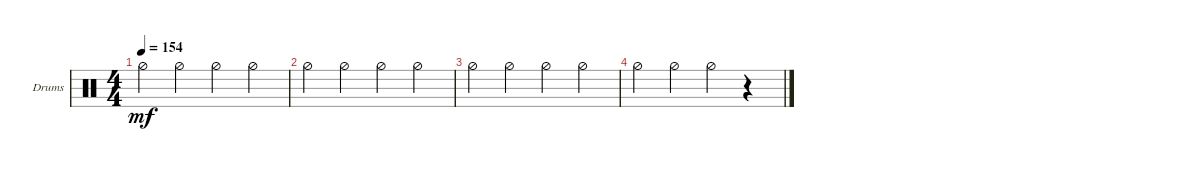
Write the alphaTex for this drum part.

\defaultSystemsLayout 4
\bracketExtendMode groupsimilarinstruments
\firstSystemTrackNameOrientation horizontal
\otherSystemsTrackNameOrientation horizontal
\track ("Drumkit" "Drums") {instrument percussion}
\staff {score}
\articulation defaults
\ts (4 4)
\tempo 154
\clef neutral
\ks c "Hi-Hat (half)".4{dy mf} "Hi-Hat (half)".4 "Hi-Hat (half)".4 "Hi-Hat (half)".4
|
"Hi-Hat (half)".4 "Hi-Hat (half)".4 "Hi-Hat (half)".4 "Hi-Hat (half)".4 |
"Hi-Hat (half)".4 "Hi-Hat (half)".4 "Hi-Hat (half)".4 "Hi-Hat (half)".4 |
"Hi-Hat (half)".4 "Hi-Hat (half)".4 "Hi-Hat (half)".4 r.4
